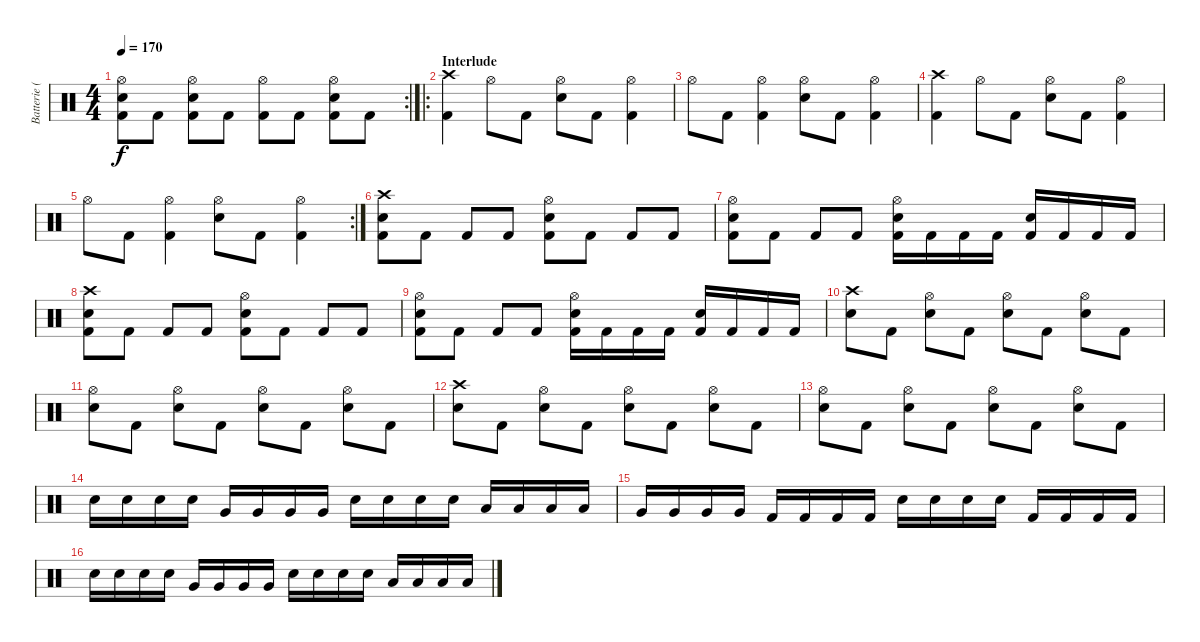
\track ("Batterie (Racci \"Sketchy\" Shay)" "Batterie (") {instrument percussion}
\staff {score}
\articulation defaults
\rc 2
\ts (4 4)
\tempo 170
\clef neutral
\ks c
("Hi-Hat (open)" "Electric Snare (hit)" "Kick (hit) 2").8{dy f} "Kick (hit) 2".8 ("Hi-Hat (open)" "Electric Snare (hit)" "Kick (hit) 2").8 "Kick (hit) 2".8 ("Hi-Hat (open)" "Kick (hit) 2").8 "Kick (hit) 2".8 ("Hi-Hat (open)" "Electric Snare (hit)" "Kick (hit) 2").8 "Kick (hit) 2".8 |
\ro
\section ("" "Interlude")
("Crash high (hit)" "Kick (hit) 2").4 "Hi-Hat (open)".8 "Kick (hit) 2".8 ("Hi-Hat (open)" "Electric Snare (hit)").8 "Kick (hit) 2".8 ("Hi-Hat (open)" "Kick (hit) 2").4 |
"Hi-Hat (open)".8 "Kick (hit) 2".8 ("Hi-Hat (open)" "Kick (hit) 2").4 ("Hi-Hat (open)" "Electric Snare (hit)").8 "Kick (hit) 2".8 ("Hi-Hat (open)" "Kick (hit) 2").4 |
("Crash high (hit)" "Kick (hit) 2").4 "Hi-Hat (open)".8 "Kick (hit) 2".8 ("Hi-Hat (open)" "Electric Snare (hit)").8 "Kick (hit) 2".8 ("Hi-Hat (open)" "Kick (hit) 2").4 |
\rc 2 "Hi-Hat (open)".8 "Kick (hit) 2".8
("Hi-Hat (open)" "Kick (hit) 2").4 ("Hi-Hat (open)" "Electric Snare (hit)").8 "Kick (hit) 2".8 ("Hi-Hat (open)" "Kick (hit) 2").4 |
("Crash high (hit)" "Electric Snare (hit)" "Kick (hit) 2").8 "Kick (hit) 2".8 "Kick (hit) 2".8 "Kick (hit) 2".8 ("Hi-Hat (open)" "Electric Snare (hit)" "Kick (hit) 2").8 "Kick (hit) 2".8 "Kick (hit) 2".8 "Kick (hit) 2".8 |
("Hi-Hat (open)" "Electric Snare (hit)" "Kick (hit) 2").8 "Kick (hit) 2".8 "Kick (hit) 2".8 "Kick (hit) 2".8 ("Hi-Hat (open)" "Electric Snare (hit)" "Kick (hit) 2").16 "Kick (hit) 2".16 "Kick (hit) 2".16 "Kick (hit) 2".16 ("Electric Snare (hit)" "Kick (hit) 2").16 "Kick (hit) 2".16 "Kick (hit) 2".16 "Kick (hit) 2".16 |
("Crash high (hit)" "Electric Snare (hit)" "Kick (hit) 2").8 "Kick (hit) 2".8 "Kick (hit) 2".8 "Kick (hit) 2".8 ("Hi-Hat (open)" "Electric Snare (hit)" "Kick (hit) 2").8 "Kick (hit) 2".8 "Kick (hit) 2".8 "Kick (hit) 2".8 |
("Hi-Hat (open)" "Electric Snare (hit)" "Kick (hit) 2").8 "Kick (hit) 2".8 "Kick (hit) 2".8 "Kick (hit) 2".8 ("Hi-Hat (open)" "Electric Snare (hit)" "Kick (hit) 2").16 "Kick (hit) 2".16 "Kick (hit) 2".16 "Kick (hit) 2".16 ("Electric Snare (hit)" "Kick (hit) 2").16 "Kick (hit) 2".16 "Kick (hit) 2".16 "Kick (hit) 2".16 |
("Crash high (hit)" "Electric Snare (hit)").8 "Kick (hit) 2".8 ("Hi-Hat (open)" "Electric Snare (hit)").8 "Kick (hit) 2".8 ("Hi-Hat (open)" "Electric Snare (hit)").8 "Kick (hit) 2".8 ("Hi-Hat (open)" "Electric Snare (hit)").8 "Kick (hit) 2".8 |
("Hi-Hat (open)" "Electric Snare (hit)").8 "Kick (hit) 2".8 ("Hi-Hat (open)" "Electric Snare (hit)").8 "Kick (hit) 2".8 ("Hi-Hat (open)" "Electric Snare (hit)").8 "Kick (hit) 2".8 ("Hi-Hat (open)" "Electric Snare (hit)").8 "Kick (hit) 2".8 |
("Crash high (hit)" "Electric Snare (hit)").8 "Kick (hit) 2".8 ("Hi-Hat (open)" "Electric Snare (hit)").8 "Kick (hit) 2".8 ("Hi-Hat (open)" "Electric Snare (hit)").8 "Kick (hit) 2".8 ("Hi-Hat (open)" "Electric Snare (hit)").8 "Kick (hit) 2".8 |
("Hi-Hat (open)" "Electric Snare (hit)").8 "Kick (hit) 2".8 ("Hi-Hat (open)" "Electric Snare (hit)").8 "Kick (hit) 2".8 ("Hi-Hat (open)" "Electric Snare (hit)").8 "Kick (hit) 2".8 ("Hi-Hat (open)" "Electric Snare (hit)").8 "Kick (hit) 2".8 |
"Electric Snare (hit)".16 "Electric Snare (hit)".16 "Electric Snare (hit)".16 "Electric Snare (hit)".16 "Very Low Tom (hit)".16 "Very Low Tom (hit)".16 "Very Low Tom (hit)".16 "Very Low Tom (hit)".16 "Electric Snare (hit)".16 "Electric Snare (hit)".16 "Electric Snare (hit)".16 "Electric Snare (hit)".16 "Low Floor Tom (hit)".16 "Low Floor Tom (hit)".16 "Low Floor Tom (hit)".16 "Low Floor Tom (hit)".16 |
"Very Low Tom (hit)".16 "Very Low Tom (hit)".16 "Very Low Tom (hit)".16 "Very Low Tom (hit)".16 "Kick (hit) 2".16 "Kick (hit) 2".16 "Kick (hit) 2".16 "Kick (hit) 2".16 "Electric Snare (hit)".16 "Electric Snare (hit)".16 "Electric Snare (hit)".16 "Electric Snare (hit)".16 "Kick (hit) 2".16 "Kick (hit) 2".16 "Kick (hit) 2".16 "Kick (hit) 2".16 |
"Electric Snare (hit)".16 "Electric Snare (hit)".16 "Electric Snare (hit)".16 "Electric Snare (hit)".16 "Very Low Tom (hit)".16 "Very Low Tom (hit)".16 "Very Low Tom (hit)".16 "Very Low Tom (hit)".16 "Electric Snare (hit)".16 "Electric Snare (hit)".16 "Electric Snare (hit)".16 "Electric Snare (hit)".16 "Low Floor Tom (hit)".16 "Low Floor Tom (hit)".16 "Low Floor Tom (hit)".16 "Low Floor Tom (hit)".16
